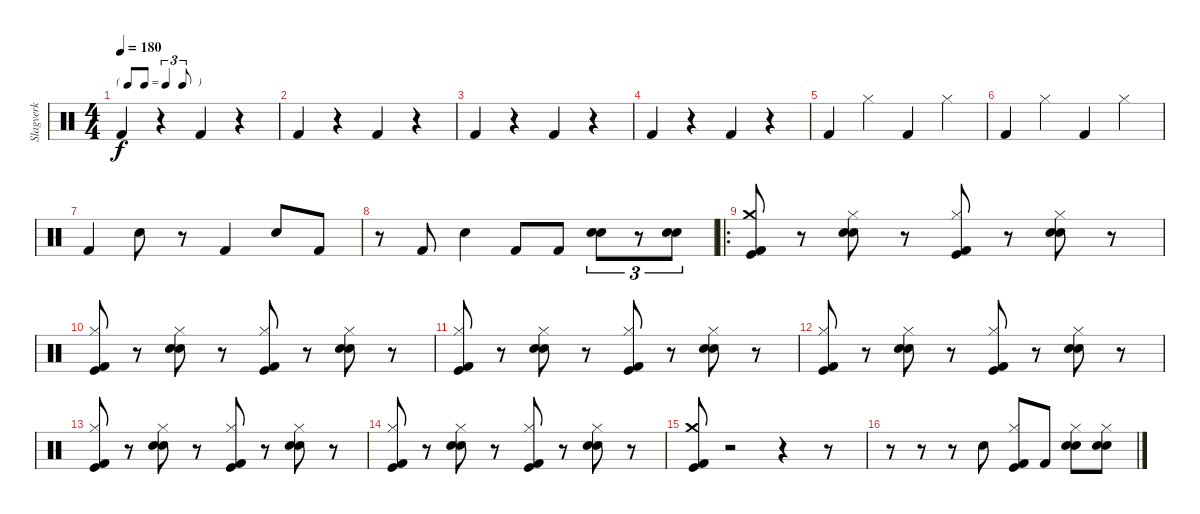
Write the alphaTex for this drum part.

\track ("Slagverk" "Slagverk") {instrument percussion}
\staff {score}
\articulation defaults
\ts (4 4)
\tf triplet8th
\tempo 180
\clef neutral
\ks c "Kick (hit) 2".4{dy f}
r.4 "Kick (hit) 2".4 r.4 |
"Kick (hit) 2".4 r.4 "Kick (hit) 2".4 r.4 |
"Kick (hit) 2".4 r.4 "Kick (hit) 2".4 r.4 |
"Kick (hit) 2".4 r.4 "Kick (hit) 2".4 r.4 |
"Kick (hit) 2".4 "Hi-Hat (closed)".4 "Kick (hit) 2".4 "Hi-Hat (closed)".4 |
"Kick (hit) 2".4 "Hi-Hat (closed)".4 "Kick (hit) 2".4 "Hi-Hat (closed)".4 |
"Kick (hit) 2".4 "Snare (hit) 2".8 r.8 "Kick (hit) 2".4 "Snare (hit) 2".8 "Kick (hit) 2".8 |
r.8 "Kick (hit) 2".8 "Snare (hit) 2".4 "Kick (hit) 2".8 "Kick (hit) 2".8 ("Electric Snare (hit)" "Snare (hit) 2").8{tu (3 2)} r.8{tu (3 2)} ("Electric Snare (hit)" "Snare (hit) 2").8{tu (3 2)} |
\ro
("Crash medium (hit)" "Kick (hit)" "Kick (hit) 2").8 r.8 ("Hi-Hat (closed)" "Electric Snare (hit)" "Snare (hit) 2").8 r.8 ("Hi-Hat (closed)" "Kick (hit)" "Kick (hit) 2").8 r.8 ("Hi-Hat (closed)" "Electric Snare (hit)" "Snare (hit) 2").8 r.8 |
("Hi-Hat (closed)" "Kick (hit)" "Kick (hit) 2").8 r.8 ("Hi-Hat (closed)" "Electric Snare (hit)" "Snare (hit) 2").8 r.8 ("Hi-Hat (closed)" "Kick (hit)" "Kick (hit) 2").8 r.8 ("Hi-Hat (closed)" "Electric Snare (hit)" "Snare (hit) 2").8 r.8 |
("Hi-Hat (closed)" "Kick (hit)" "Kick (hit) 2").8 r.8 ("Hi-Hat (closed)" "Electric Snare (hit)" "Snare (hit) 2").8 r.8 ("Hi-Hat (closed)" "Kick (hit)" "Kick (hit) 2").8 r.8 ("Hi-Hat (closed)" "Electric Snare (hit)" "Snare (hit) 2").8 r.8 |
("Hi-Hat (closed)" "Kick (hit)" "Kick (hit) 2").8 r.8 ("Hi-Hat (closed)" "Electric Snare (hit)" "Snare (hit) 2").8 r.8 ("Hi-Hat (closed)" "Kick (hit)" "Kick (hit) 2").8 r.8 ("Hi-Hat (closed)" "Electric Snare (hit)" "Snare (hit) 2").8 r.8 |
("Hi-Hat (closed)" "Kick (hit)" "Kick (hit) 2").8 r.8 ("Hi-Hat (closed)" "Electric Snare (hit)" "Snare (hit) 2").8 r.8 ("Hi-Hat (closed)" "Kick (hit)" "Kick (hit) 2").8 r.8 ("Hi-Hat (closed)" "Electric Snare (hit)" "Snare (hit) 2").8 r.8 |
("Hi-Hat (closed)" "Kick (hit)" "Kick (hit) 2").8 r.8 ("Hi-Hat (closed)" "Electric Snare (hit)" "Snare (hit) 2").8 r.8 ("Hi-Hat (closed)" "Kick (hit)" "Kick (hit) 2").8 r.8 ("Hi-Hat (closed)" "Electric Snare (hit)" "Snare (hit) 2").8 r.8 |
("Crash medium (hit)" "Kick (hit)" "Kick (hit) 2").8 r.2 r.4 r.8 |
r.8 r.8 r.8 "Electric Snare (hit)".8 ("Hi-Hat (closed)" "Kick (hit)" "Kick (hit) 2").8 "Kick (hit) 2".8 ("Hi-Hat (closed)" "Electric Snare (hit)" "Snare (hit) 2").8 ("Hi-Hat (closed)" "Electric Snare (hit)" "Snare (hit) 2").8
